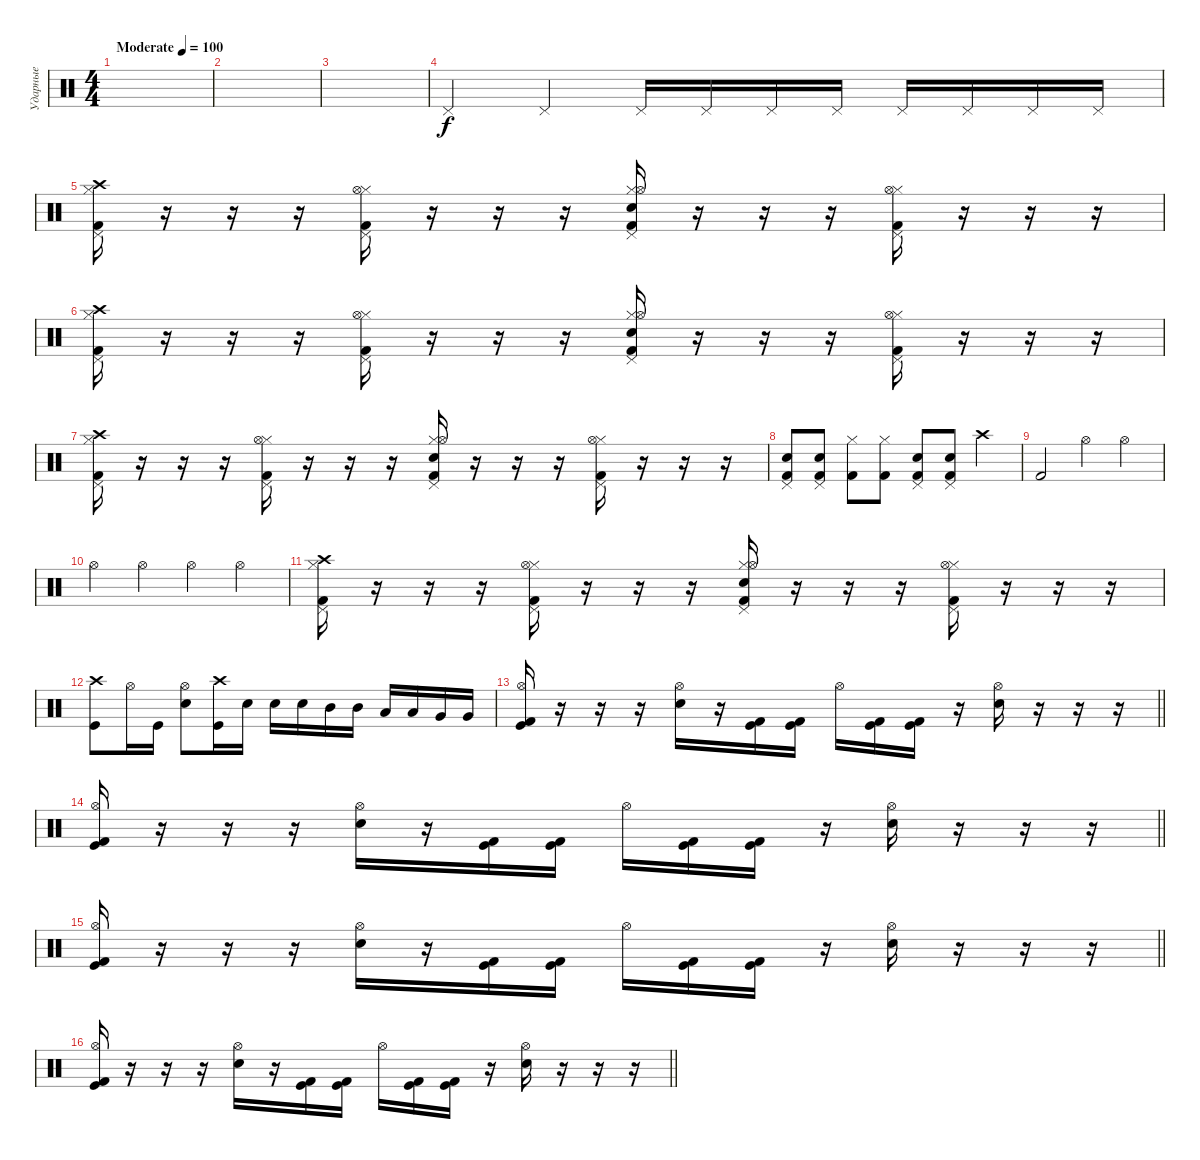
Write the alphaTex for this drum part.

\track ("Ударные" "Ударные") {instrument percussion}
\staff {score}
\articulation defaults
\ts (4 4)
\tempo (100 "Moderate")
\clef neutral
\ks c
|
|
|
"Pedal Hi-Hat (hit)".4 "Pedal Hi-Hat (hit)".4 "Pedal Hi-Hat (hit)".16 "Pedal Hi-Hat (hit)".16 "Pedal Hi-Hat (hit)".16 "Pedal Hi-Hat (hit)".16 "Pedal Hi-Hat (hit)".16 "Pedal Hi-Hat (hit)".16 "Pedal Hi-Hat (hit)".16 "Pedal Hi-Hat (hit)".16 |
("Hi-Hat (closed)" "Pedal Hi-Hat (hit)" "Kick (hit) 2" "Crash high (hit)").16 r.16 r.16 r.16 ("Hi-Hat (closed)" "Pedal Hi-Hat (hit)" "Hi-Hat (open)" "Kick (hit) 2").16 r.16 r.16 r.16 ("Hi-Hat (closed)" "Pedal Hi-Hat (hit)" "Electric Snare (hit)" "Hi-Hat (open)" "Kick (hit) 2").16 r.16 r.16 r.16 ("Hi-Hat (closed)" "Pedal Hi-Hat (hit)" "Hi-Hat (open)" "Kick (hit) 2").16 r.16 r.16 r.16 |
("Hi-Hat (closed)" "Pedal Hi-Hat (hit)" "Kick (hit) 2" "Crash high (hit)").16 r.16 r.16 r.16 ("Hi-Hat (closed)" "Pedal Hi-Hat (hit)" "Hi-Hat (open)" "Kick (hit) 2").16 r.16 r.16 r.16 ("Hi-Hat (closed)" "Pedal Hi-Hat (hit)" "Electric Snare (hit)" "Hi-Hat (open)" "Kick (hit) 2").16 r.16 r.16 r.16 ("Hi-Hat (closed)" "Pedal Hi-Hat (hit)" "Hi-Hat (open)" "Kick (hit) 2").16 r.16 r.16 r.16 |
("Hi-Hat (closed)" "Pedal Hi-Hat (hit)" "Kick (hit) 2" "Crash high (hit)").16 r.16 r.16 r.16 ("Hi-Hat (closed)" "Pedal Hi-Hat (hit)" "Hi-Hat (open)" "Kick (hit) 2").16 r.16 r.16 r.16 ("Hi-Hat (closed)" "Pedal Hi-Hat (hit)" "Electric Snare (hit)" "Hi-Hat (open)" "Kick (hit) 2").16 r.16 r.16 r.16 ("Hi-Hat (closed)" "Pedal Hi-Hat (hit)" "Hi-Hat (open)" "Kick (hit) 2").16 r.16 r.16 r.16 |
("Kick (hit) 2" "Electric Snare (hit)" "Pedal Hi-Hat (hit)").8 ("Kick (hit) 2" "Electric Snare (hit)" "Pedal Hi-Hat (hit)").8 ("Hi-Hat (closed)" "Kick (hit) 2").8 ("Hi-Hat (closed)" "Kick (hit) 2").8 ("Kick (hit) 2" "Electric Snare (hit)" "Pedal Hi-Hat (hit)").8 ("Kick (hit) 2" "Electric Snare (hit)" "Pedal Hi-Hat (hit)").8 "Crash high (hit)".4 |
"Kick (hit) 2".2 "Hi-Hat (open)".4 "Hi-Hat (open)".4 |
"Hi-Hat (open)".4 "Hi-Hat (open)".4 "Hi-Hat (open)".4 "Hi-Hat (open)".4 |
("Hi-Hat (closed)" "Pedal Hi-Hat (hit)" "Kick (hit) 2" "Crash high (hit)").16 r.16 r.16 r.16 ("Hi-Hat (closed)" "Pedal Hi-Hat (hit)" "Hi-Hat (open)" "Kick (hit) 2").16 r.16 r.16 r.16 ("Hi-Hat (closed)" "Pedal Hi-Hat (hit)" "Electric Snare (hit)" "Hi-Hat (open)" "Kick (hit) 2").16 r.16 r.16 r.16 ("Hi-Hat (closed)" "Pedal Hi-Hat (hit)" "Hi-Hat (open)" "Kick (hit) 2").16 r.16 r.16 r.16 |
("Kick (hit)" "Crash high (hit)").8 "Hi-Hat (open)".16 "Kick (hit)".16 ("Snare (hit) 2" "Hi-Hat (open)").8 ("Kick (hit)" "Crash high (hit)").16 "Snare (hit) 2".16 "Snare (hit) 2".16 "Snare (hit) 2".16 "Mid Tom (hit)".16 "Mid Tom (hit)".16 "Low Tom (hit)".16 "Low Tom (hit)".16 "Very Low Tom (hit)".16 "Very Low Tom (hit)".16 |
\barLineRight lightlight
("Kick (hit)" "Kick (hit) 2" "Hi-Hat (open)").16 r.16 r.16 r.16 ("Electric Snare (hit)" "Hi-Hat (open)").16 r.16 ("Kick (hit)" "Kick (hit) 2").16 ("Kick (hit)" "Kick (hit) 2").16 "Hi-Hat (open)".16 ("Kick (hit)" "Kick (hit) 2").16 ("Kick (hit)" "Kick (hit) 2").16 r.16 ("Electric Snare (hit)" "Hi-Hat (open)").16 r.16 r.16 r.16 |
\barLineRight lightlight
("Kick (hit)" "Kick (hit) 2" "Hi-Hat (open)").16 r.16 r.16 r.16 ("Electric Snare (hit)" "Hi-Hat (open)").16 r.16 ("Kick (hit)" "Kick (hit) 2").16 ("Kick (hit)" "Kick (hit) 2").16 "Hi-Hat (open)".16 ("Kick (hit)" "Kick (hit) 2").16 ("Kick (hit)" "Kick (hit) 2").16 r.16 ("Electric Snare (hit)" "Hi-Hat (open)").16 r.16 r.16 r.16 |
\barLineRight lightlight
("Kick (hit)" "Kick (hit) 2" "Hi-Hat (open)").16 r.16 r.16 r.16 ("Electric Snare (hit)" "Hi-Hat (open)").16 r.16 ("Kick (hit)" "Kick (hit) 2").16 ("Kick (hit)" "Kick (hit) 2").16 "Hi-Hat (open)".16 ("Kick (hit)" "Kick (hit) 2").16 ("Kick (hit)" "Kick (hit) 2").16 r.16 ("Electric Snare (hit)" "Hi-Hat (open)").16 r.16 r.16 r.16 |
\barLineRight lightlight
("Kick (hit)" "Kick (hit) 2" "Hi-Hat (open)").16 r.16 r.16 r.16 ("Electric Snare (hit)" "Hi-Hat (open)").16 r.16 ("Kick (hit)" "Kick (hit) 2").16 ("Kick (hit)" "Kick (hit) 2").16 "Hi-Hat (open)".16 ("Kick (hit)" "Kick (hit) 2").16 ("Kick (hit)" "Kick (hit) 2").16 r.16 ("Electric Snare (hit)" "Hi-Hat (open)").16 r.16 r.16 r.16
